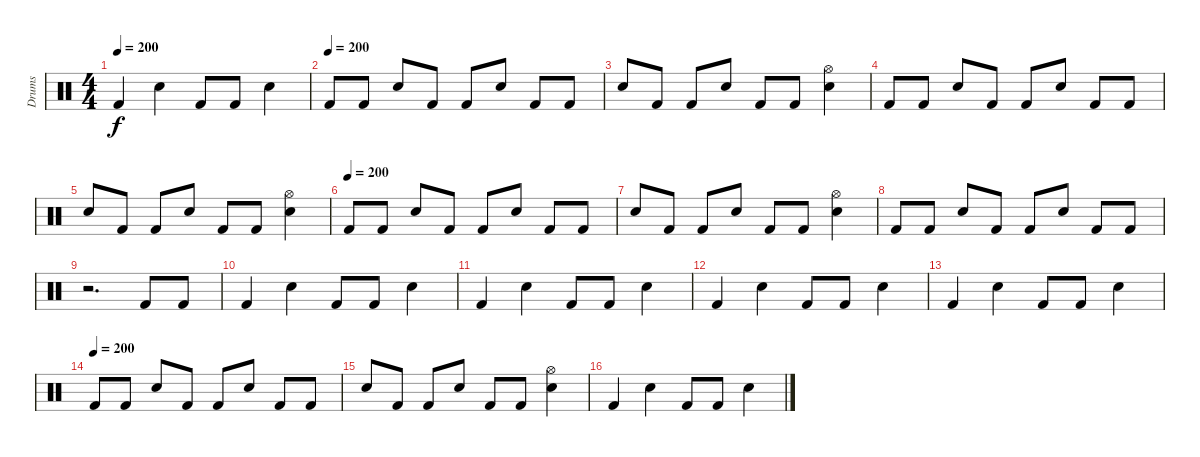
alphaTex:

\track ("Drums" "Drums") {instrument percussion}
\staff {score}
\articulation defaults
\ts (4 4)
\tempo 200
\clef neutral
\ks c "Kick (hit) 2".4{dy f} "Snare (hit) 2".4 "Kick (hit) 2".8 "Kick (hit) 2".8 "Snare (hit) 2".4
|
\tempo (200)
"Kick (hit) 2".8 "Kick (hit) 2".8 "Snare (hit) 2".8 "Kick (hit) 2".8 "Kick (hit) 2".8 "Snare (hit) 2".8 "Kick (hit) 2".8 "Kick (hit) 2".8 |
"Snare (hit) 2".8 "Kick (hit) 2".8 "Kick (hit) 2".8 "Snare (hit) 2".8 "Kick (hit) 2".8 "Kick (hit) 2".8 ("Hi-Hat (open)" "Snare (hit) 2").4 |
"Kick (hit) 2".8 "Kick (hit) 2".8 "Snare (hit) 2".8 "Kick (hit) 2".8 "Kick (hit) 2".8 "Snare (hit) 2".8 "Kick (hit) 2".8 "Kick (hit) 2".8 |
"Snare (hit) 2".8 "Kick (hit) 2".8 "Kick (hit) 2".8 "Snare (hit) 2".8 "Kick (hit) 2".8 "Kick (hit) 2".8 ("Hi-Hat (open)" "Snare (hit) 2").4 |
\tempo (200)
"Kick (hit) 2".8 "Kick (hit) 2".8 "Snare (hit) 2".8 "Kick (hit) 2".8 "Kick (hit) 2".8 "Snare (hit) 2".8 "Kick (hit) 2".8 "Kick (hit) 2".8 |
"Snare (hit) 2".8 "Kick (hit) 2".8 "Kick (hit) 2".8 "Snare (hit) 2".8 "Kick (hit) 2".8 "Kick (hit) 2".8 ("Hi-Hat (open)" "Snare (hit) 2").4 |
"Kick (hit) 2".8 "Kick (hit) 2".8 "Snare (hit) 2".8 "Kick (hit) 2".8 "Kick (hit) 2".8 "Snare (hit) 2".8 "Kick (hit) 2".8 "Kick (hit) 2".8 |
r.2{d} "Kick (hit) 2".8 "Kick (hit) 2".8 |
"Kick (hit) 2".4 "Snare (hit) 2".4 "Kick (hit) 2".8 "Kick (hit) 2".8 "Snare (hit) 2".4 |
"Kick (hit) 2".4 "Snare (hit) 2".4 "Kick (hit) 2".8 "Kick (hit) 2".8 "Snare (hit) 2".4 |
"Kick (hit) 2".4 "Snare (hit) 2".4 "Kick (hit) 2".8 "Kick (hit) 2".8 "Snare (hit) 2".4 |
"Kick (hit) 2".4 "Snare (hit) 2".4 "Kick (hit) 2".8 "Kick (hit) 2".8 "Snare (hit) 2".4 |
\tempo (200)
"Kick (hit) 2".8 "Kick (hit) 2".8 "Snare (hit) 2".8 "Kick (hit) 2".8 "Kick (hit) 2".8 "Snare (hit) 2".8 "Kick (hit) 2".8 "Kick (hit) 2".8 |
"Snare (hit) 2".8 "Kick (hit) 2".8 "Kick (hit) 2".8 "Snare (hit) 2".8 "Kick (hit) 2".8 "Kick (hit) 2".8 ("Hi-Hat (open)" "Snare (hit) 2").4 |
"Kick (hit) 2".4 "Snare (hit) 2".4 "Kick (hit) 2".8 "Kick (hit) 2".8 "Snare (hit) 2".4
